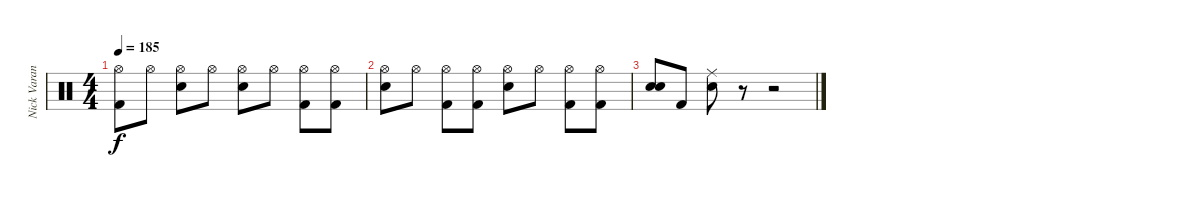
\track ("Nick Varano (Drums)" "Nick Varan") {instrument percussion}
\staff {score}
\articulation defaults
\ts (4 4)
\tempo 185
\clef neutral
\ks c
("Hi-Hat (open)" "Kick (hit) 2").8{dy f} "Hi-Hat (open)".8 ("Hi-Hat (open)" "Electric Snare (hit)").8 "Hi-Hat (open)".8 ("Hi-Hat (open)" "Electric Snare (hit)").8 "Hi-Hat (open)".8 ("Hi-Hat (open)" "Kick (hit) 2").8 ("Hi-Hat (open)" "Kick (hit) 2").8 |
("Hi-Hat (open)" "Electric Snare (hit)").8 "Hi-Hat (open)".8 ("Hi-Hat (open)" "Kick (hit) 2").8 ("Hi-Hat (open)" "Kick (hit) 2").8 ("Hi-Hat (open)" "Electric Snare (hit)").8 "Hi-Hat (open)".8 ("Hi-Hat (open)" "Kick (hit) 2").8 ("Hi-Hat (open)" "Kick (hit) 2").8 |
("Electric Snare (hit)" "Electric Snare (hit)").8 "Kick (hit) 2".8 ("Ride (middle)" "Electric Snare (hit)").8 r.8 r.2
